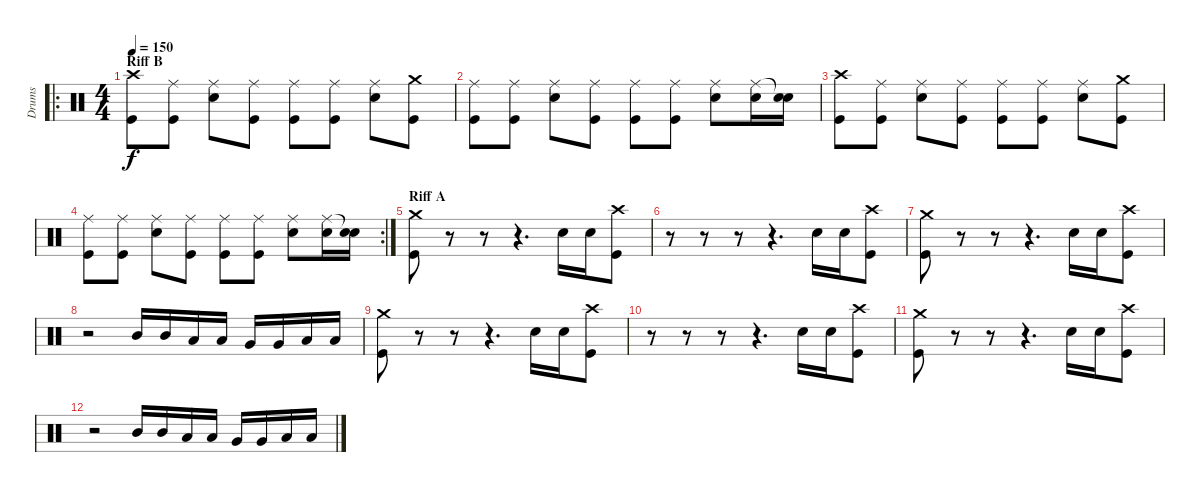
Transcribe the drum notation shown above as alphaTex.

\track ("Drums" "Drums") {instrument percussion}
\staff {score}
\articulation defaults
\ro
\ts (4 4)
\section ("" "Riff B")
\tempo 150
\clef neutral
\ks c
("Crash high (hit)" "Kick (hit)").8{dy f} ("Ride (middle)" "Kick (hit)").8 ("Ride (middle)" "Snare (hit) 2").8 ("Ride (middle)" "Kick (hit)").8 ("Ride (middle)" "Kick (hit)").8 ("Ride (middle)" "Kick (hit)").8 ("Ride (middle)" "Snare (hit) 2").8 ("Crash medium (hit)" "Kick (hit)").8 |
("Ride (middle)" "Kick (hit)").8 ("Ride (middle)" "Kick (hit)").8 ("Ride (middle)" "Snare (hit) 2").8 ("Ride (middle)" "Kick (hit)").8 ("Ride (middle)" "Kick (hit)").8 ("Ride (middle)" "Kick (hit)").8 ("Ride (middle)" "Snare (hit) 2").8 ("Ride (middle)" "Electric Snare (hit)").16 ("Snare (hit)"{t} "Electric Snare (hit)").16 |
("Crash high (hit)" "Kick (hit)").8 ("Ride (middle)" "Kick (hit)").8 ("Ride (middle)" "Snare (hit) 2").8 ("Ride (middle)" "Kick (hit)").8 ("Ride (middle)" "Kick (hit)").8 ("Ride (middle)" "Kick (hit)").8 ("Ride (middle)" "Snare (hit) 2").8 ("Crash medium (hit)" "Kick (hit)").8 |
\rc 2
("Ride (middle)" "Kick (hit)").8 ("Ride (middle)" "Kick (hit)").8 ("Ride (middle)" "Snare (hit) 2").8 ("Ride (middle)" "Kick (hit)").8 ("Ride (middle)" "Kick (hit)").8 ("Ride (middle)" "Kick (hit)").8 ("Ride (middle)" "Snare (hit) 2").8 ("Ride (middle)" "Electric Snare (hit)").16 ("Snare (hit)"{t} "Electric Snare (hit)").16 |
\section ("" "Riff A")
("Crash medium (hit)" "Kick (hit)").8 r.8 r.8 r.4{d} "Electric Snare (hit)".16 "Electric Snare (hit)".16 ("Crash high (hit)" "Kick (hit)").8 |
r.8 r.8 r.8 r.4{d} "Electric Snare (hit)".16 "Electric Snare (hit)".16 ("Crash high (hit)" "Kick (hit)").8 |
("Crash medium (hit)" "Kick (hit)").8 r.8 r.8 r.4{d} "Electric Snare (hit)".16 "Electric Snare (hit)".16 ("Crash high (hit)" "Kick (hit)").8 |
r.2{volume 2} "Mid Tom (hit)".16 "Mid Tom (hit)".16 "Low Tom (hit)".16 "Low Tom (hit)".16 "Very Low Tom (hit)".16 "Very Low Tom (hit)".16 "Low Tom (hit)".16 "Low Tom (hit)".16 |
("Crash medium (hit)" "Kick (hit)").8 r.8 r.8 r.4{d} "Electric Snare (hit)".16 "Electric Snare (hit)".16 ("Crash high (hit)" "Kick (hit)").8 |
r.8 r.8 r.8 r.4{d} "Electric Snare (hit)".16 "Electric Snare (hit)".16 ("Crash high (hit)" "Kick (hit)").8 |
("Crash medium (hit)" "Kick (hit)").8 r.8 r.8 r.4{d} "Electric Snare (hit)".16 "Electric Snare (hit)".16 ("Crash high (hit)" "Kick (hit)").8 |
r.2 "Mid Tom (hit)".16 "Mid Tom (hit)".16 "Low Tom (hit)".16 "Low Tom (hit)".16 "Very Low Tom (hit)".16 "Very Low Tom (hit)".16 "Low Tom (hit)".16 "Low Tom (hit)".16
